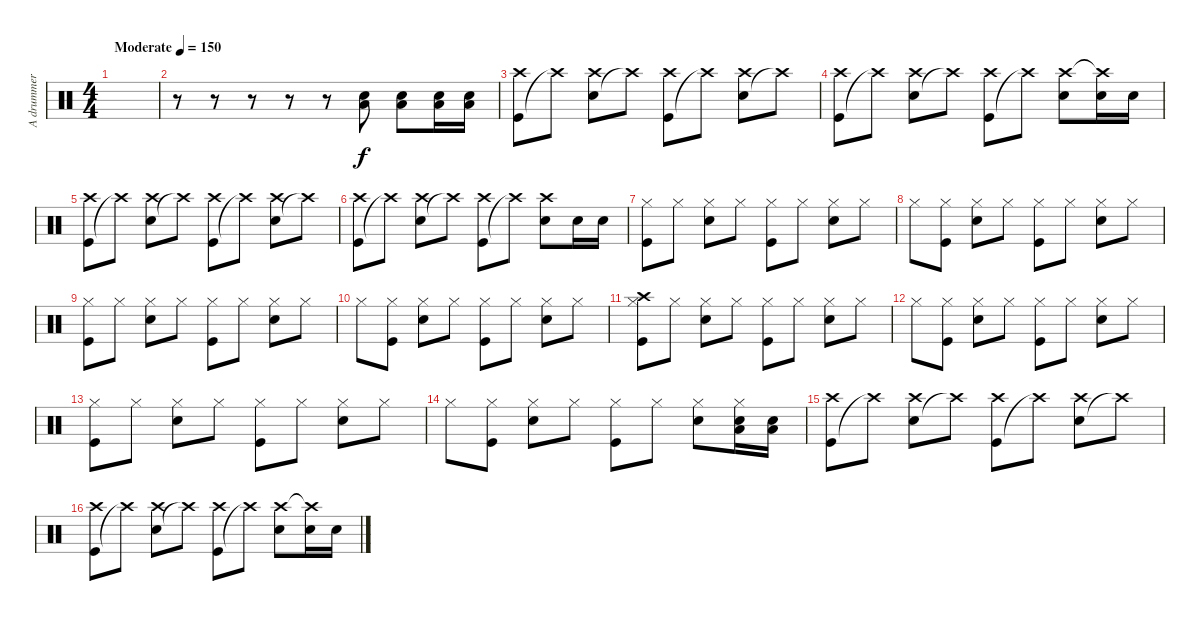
\track ("A drummer I guess..? " "A drummer ") {instrument percussion}
\staff {score}
\articulation defaults
\ts (4 4)
\tempo (150 "Moderate")
\clef neutral
\ks c
|
r.8 r.8 r.8 r.8 r.8 ("Electric Snare (hit)" "Low Floor Tom (hit)").8 ("Electric Snare (hit)" "Low Floor Tom (hit)").8 ("Electric Snare (hit)" "Low Floor Tom (hit)").16 ("Electric Snare (hit)" "Low Floor Tom (hit)").16 |
("Kick (hit)" "Crash high (hit)").8 "Crash high (hit)"{t}.8 ("Electric Snare (hit)" "Crash high (hit)").8 "Crash high (hit)"{t}.8 ("Kick (hit)" "Crash high (hit)").8 "Crash high (hit)"{t}.8 ("Electric Snare (hit)" "Crash high (hit)").8 "Crash high (hit)"{t}.8 |
("Kick (hit)" "Crash high (hit)").8 "Crash high (hit)"{t}.8 ("Electric Snare (hit)" "Crash high (hit)").8 "Crash high (hit)"{t}.8 ("Kick (hit)" "Crash high (hit)").8 "Crash high (hit)"{t}.8 ("Electric Snare (hit)" "Crash high (hit)").8 ("Electric Snare (hit)" "Crash high (hit)"{t}).16 "Electric Snare (hit)".16 |
("Kick (hit)" "Crash high (hit)").8 "Crash high (hit)"{t}.8 ("Electric Snare (hit)" "Crash high (hit)").8 "Crash high (hit)"{t}.8 ("Kick (hit)" "Crash high (hit)").8 "Crash high (hit)"{t}.8 ("Electric Snare (hit)" "Crash high (hit)").8 "Crash high (hit)"{t}.8 |
("Kick (hit)" "Crash high (hit)").8 "Crash high (hit)"{t}.8 ("Electric Snare (hit)" "Crash high (hit)").8 "Crash high (hit)"{t}.8 ("Kick (hit)" "Crash high (hit)").8 "Crash high (hit)"{t}.8 ("Electric Snare (hit)" "Crash high (hit)").8 "Electric Snare (hit)".16 "Electric Snare (hit)".16 |
("Kick (hit)" "Hi-Hat (closed)").8 "Hi-Hat (closed)".8 ("Electric Snare (hit)" "Hi-Hat (closed)").8 "Hi-Hat (closed)".8 ("Kick (hit)" "Hi-Hat (closed)").8 "Hi-Hat (closed)".8 ("Electric Snare (hit)" "Hi-Hat (closed)").8 "Hi-Hat (closed)".8 |
"Hi-Hat (closed)".8 ("Kick (hit)" "Hi-Hat (closed)").8 ("Electric Snare (hit)" "Hi-Hat (closed)").8 "Hi-Hat (closed)".8 ("Kick (hit)" "Hi-Hat (closed)").8 "Hi-Hat (closed)".8 ("Electric Snare (hit)" "Hi-Hat (closed)").8 "Hi-Hat (closed)".8 |
("Kick (hit)" "Hi-Hat (closed)").8 "Hi-Hat (closed)".8 ("Electric Snare (hit)" "Hi-Hat (closed)").8 "Hi-Hat (closed)".8 ("Kick (hit)" "Hi-Hat (closed)").8 "Hi-Hat (closed)".8 ("Electric Snare (hit)" "Hi-Hat (closed)").8 "Hi-Hat (closed)".8 |
"Hi-Hat (closed)".8 ("Kick (hit)" "Hi-Hat (closed)").8 ("Electric Snare (hit)" "Hi-Hat (closed)").8 "Hi-Hat (closed)".8 ("Kick (hit)" "Hi-Hat (closed)").8 "Hi-Hat (closed)".8 ("Electric Snare (hit)" "Hi-Hat (closed)").8 "Hi-Hat (closed)".8 |
("Kick (hit)" "Crash high (hit)" "Hi-Hat (closed)").8 "Hi-Hat (closed)".8 ("Electric Snare (hit)" "Hi-Hat (closed)").8 "Hi-Hat (closed)".8 ("Kick (hit)" "Hi-Hat (closed)").8 "Hi-Hat (closed)".8 ("Electric Snare (hit)" "Hi-Hat (closed)").8 "Hi-Hat (closed)".8 |
"Hi-Hat (closed)".8 ("Kick (hit)" "Hi-Hat (closed)").8 ("Electric Snare (hit)" "Hi-Hat (closed)").8 "Hi-Hat (closed)".8 ("Kick (hit)" "Hi-Hat (closed)").8 "Hi-Hat (closed)".8 ("Electric Snare (hit)" "Hi-Hat (closed)").8 "Hi-Hat (closed)".8 |
("Kick (hit)" "Hi-Hat (closed)").8 "Hi-Hat (closed)".8 ("Electric Snare (hit)" "Hi-Hat (closed)").8 "Hi-Hat (closed)".8 ("Kick (hit)" "Hi-Hat (closed)").8 "Hi-Hat (closed)".8 ("Electric Snare (hit)" "Hi-Hat (closed)").8 "Hi-Hat (closed)".8 |
"Hi-Hat (closed)".8 ("Kick (hit)" "Hi-Hat (closed)").8 ("Electric Snare (hit)" "Hi-Hat (closed)").8 "Hi-Hat (closed)".8 ("Kick (hit)" "Hi-Hat (closed)").8 "Hi-Hat (closed)".8 ("Electric Snare (hit)" "Hi-Hat (closed)").8 ("Electric Snare (hit)" "Low Floor Tom (hit)" "Hi-Hat (closed)").16 ("Electric Snare (hit)" "Low Floor Tom (hit)").16 |
("Kick (hit)" "Crash high (hit)").8 "Crash high (hit)"{t}.8 ("Electric Snare (hit)" "Crash high (hit)").8 "Crash high (hit)"{t}.8 ("Kick (hit)" "Crash high (hit)").8 "Crash high (hit)"{t}.8 ("Electric Snare (hit)" "Crash high (hit)").8 "Crash high (hit)"{t}.8 |
("Kick (hit)" "Crash high (hit)").8 "Crash high (hit)"{t}.8 ("Electric Snare (hit)" "Crash high (hit)").8 "Crash high (hit)"{t}.8 ("Kick (hit)" "Crash high (hit)").8 "Crash high (hit)"{t}.8 ("Electric Snare (hit)" "Crash high (hit)").8 ("Electric Snare (hit)" "Crash high (hit)"{t}).16 "Electric Snare (hit)".16
